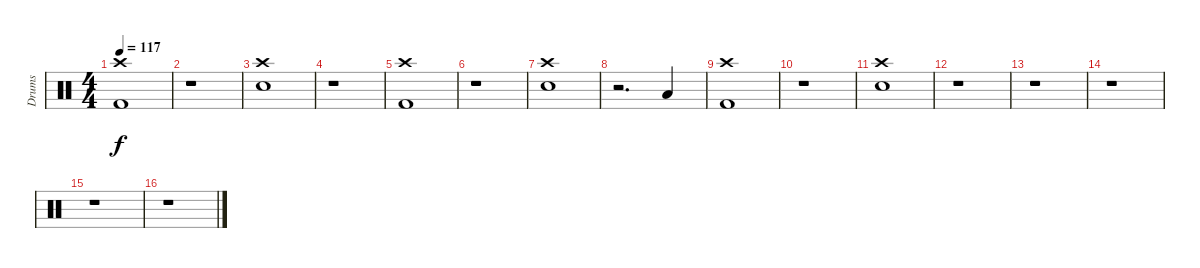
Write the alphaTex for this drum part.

\track ("Drums" "Drums") {instrument percussion}
\staff {score}
\articulation defaults
\ts (4 4)
\tempo 117
\clef neutral
\ks c
("Crash high (hit)" "Kick (hit) 2").1{dy f} |
r.1 |
("Crash high (hit)" "Snare (hit) 2").1 |
r.1 |
("Crash high (hit)" "Kick (hit) 2").1 |
r.1 |
("Crash high (hit)" "Snare (hit) 2").1 |
r.2{d} "Low Tom (hit)".4 |
("Crash high (hit)" "Kick (hit) 2").1 |
r.1 |
("Crash high (hit)" "Snare (hit) 2").1 |
r.1 |
r.1 |
r.1 |
r.1 |
r.1
